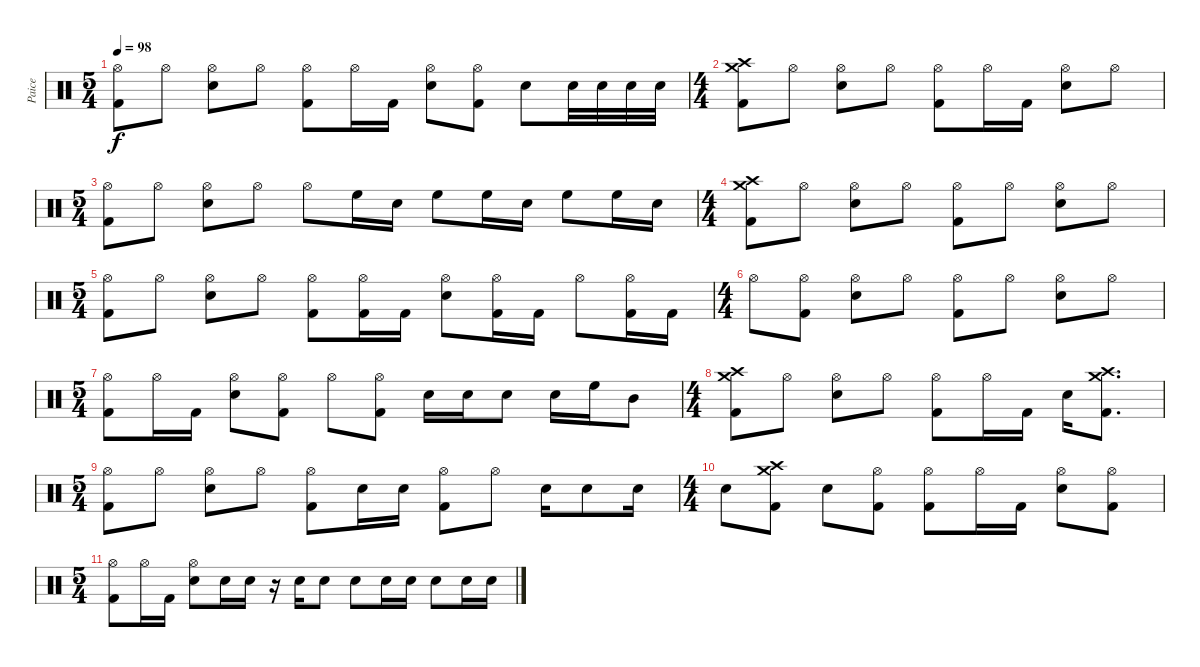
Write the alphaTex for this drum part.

\track ("Paice" "Paice") {instrument percussion}
\staff {score}
\articulation defaults
\ts (5 4)
\tempo 98
\clef neutral
\ks c
("Hi-Hat (open)" "Kick (hit) 2").8{dy f} "Hi-Hat (open)".8 ("Hi-Hat (open)" "Electric Snare (hit)").8 "Hi-Hat (open)".8 ("Hi-Hat (open)" "Kick (hit) 2").8 "Hi-Hat (open)".16 "Kick (hit) 2".16 ("Hi-Hat (open)" "Electric Snare (hit)").8 ("Hi-Hat (open)" "Kick (hit) 2").8 "Electric Snare (hit)".8 "Electric Snare (hit)".32 "Electric Snare (hit)".32 "Electric Snare (hit)".32 "Electric Snare (hit)".32 |
\ts (4 4)
("Crash high (hit)" "Crash medium (hit)" "Kick (hit) 2").8 "Hi-Hat (open)".8 ("Hi-Hat (open)" "Electric Snare (hit)").8 "Hi-Hat (open)".8 ("Hi-Hat (open)" "Kick (hit) 2").8 "Hi-Hat (open)".16 "Kick (hit) 2".16 ("Hi-Hat (open)" "Electric Snare (hit)").8 "Hi-Hat (open)".8 |
\ts (5 4)
("Hi-Hat (open)" "Kick (hit) 2").8 "Hi-Hat (open)".8 ("Hi-Hat (open)" "Electric Snare (hit)").8 "Hi-Hat (open)".8 "Hi-Hat (open)".8 "High Floor Tom (hit)".16 "Electric Snare (hit)".16 "High Floor Tom (hit)".8 "High Floor Tom (hit)".16 "Electric Snare (hit)".16 "High Floor Tom (hit)".8 "High Floor Tom (hit)".16 "Electric Snare (hit)".16 |
\ts (4 4)
("Crash high (hit)" "Crash medium (hit)" "Kick (hit) 2").8 "Hi-Hat (open)".8 ("Hi-Hat (open)" "Electric Snare (hit)").8 "Hi-Hat (open)".8 ("Hi-Hat (open)" "Kick (hit) 2").8 "Hi-Hat (open)".8 ("Hi-Hat (open)" "Electric Snare (hit)").8 "Hi-Hat (open)".8 |
\ts (5 4)
("Hi-Hat (open)" "Kick (hit) 2").8 "Hi-Hat (open)".8 ("Hi-Hat (open)" "Electric Snare (hit)").8 "Hi-Hat (open)".8 ("Hi-Hat (open)" "Kick (hit) 2").8 ("Hi-Hat (open)" "Kick (hit) 2").16 "Kick (hit) 2".16 ("Hi-Hat (open)" "Electric Snare (hit)").8 ("Hi-Hat (open)" "Kick (hit) 2").16 "Kick (hit) 2".16 "Hi-Hat (open)".8 ("Hi-Hat (open)" "Kick (hit) 2").16 "Kick (hit) 2".16 |
\ts (4 4)
"Hi-Hat (open)".8 ("Hi-Hat (open)" "Kick (hit) 2").8 ("Hi-Hat (open)" "Electric Snare (hit)").8 "Hi-Hat (open)".8 ("Hi-Hat (open)" "Kick (hit) 2").8 "Hi-Hat (open)".8 ("Hi-Hat (open)" "Electric Snare (hit)").8 "Hi-Hat (open)".8 |
\ts (5 4)
("Hi-Hat (open)" "Kick (hit) 2").8 "Hi-Hat (open)".16 "Kick (hit) 2".16 ("Hi-Hat (open)" "Electric Snare (hit)").8 ("Hi-Hat (open)" "Kick (hit) 2").8 "Hi-Hat (open)".8 ("Hi-Hat (open)" "Kick (hit) 2").8 "Electric Snare (hit)".16 "Electric Snare (hit)".16 "Electric Snare (hit)".8 "Electric Snare (hit)".16 "High Floor Tom (hit)".16 "Mid Tom (hit)".8 |
\ts (4 4)
("Crash high (hit)" "Crash medium (hit)" "Kick (hit) 2").8 "Hi-Hat (open)".8 ("Hi-Hat (open)" "Electric Snare (hit)").8 "Hi-Hat (open)".8 ("Hi-Hat (open)" "Kick (hit) 2").8 "Hi-Hat (open)".16 "Kick (hit) 2".16 "Electric Snare (hit)".16 ("Crash high (hit)" "Crash medium (hit)" "Kick (hit) 2").8{d} |
\ts (5 4)
("Hi-Hat (open)" "Kick (hit) 2").8 "Hi-Hat (open)".8 ("Hi-Hat (open)" "Electric Snare (hit)").8 "Hi-Hat (open)".8 ("Hi-Hat (open)" "Kick (hit) 2").8 "Electric Snare (hit)".16 "Electric Snare (hit)".16 ("Hi-Hat (open)" "Kick (hit) 2").8 "Hi-Hat (open)".8 "Electric Snare (hit)".16 "Electric Snare (hit)".8 "Electric Snare (hit)".16 |
\ts (4 4)
"Electric Snare (hit)".8 ("Crash high (hit)" "Crash medium (hit)" "Kick (hit) 2").8 "Electric Snare (hit)".8 ("Hi-Hat (open)" "Kick (hit) 2").8 ("Hi-Hat (open)" "Kick (hit) 2").8 "Hi-Hat (open)".16 "Kick (hit) 2".16 ("Hi-Hat (open)" "Electric Snare (hit)").8 ("Hi-Hat (open)" "Kick (hit) 2").8 |
\ts (5 4)
("Hi-Hat (open)" "Kick (hit) 2").8 "Hi-Hat (open)".16 "Kick (hit) 2".16 ("Hi-Hat (open)" "Electric Snare (hit)").8 "Electric Snare (hit)".16 "Electric Snare (hit)".16 r.16 "Electric Snare (hit)".16 "Electric Snare (hit)".8 "Electric Snare (hit)".8 "Electric Snare (hit)".16 "Electric Snare (hit)".16 "Electric Snare (hit)".8 "Electric Snare (hit)".16 "Electric Snare (hit)".16
